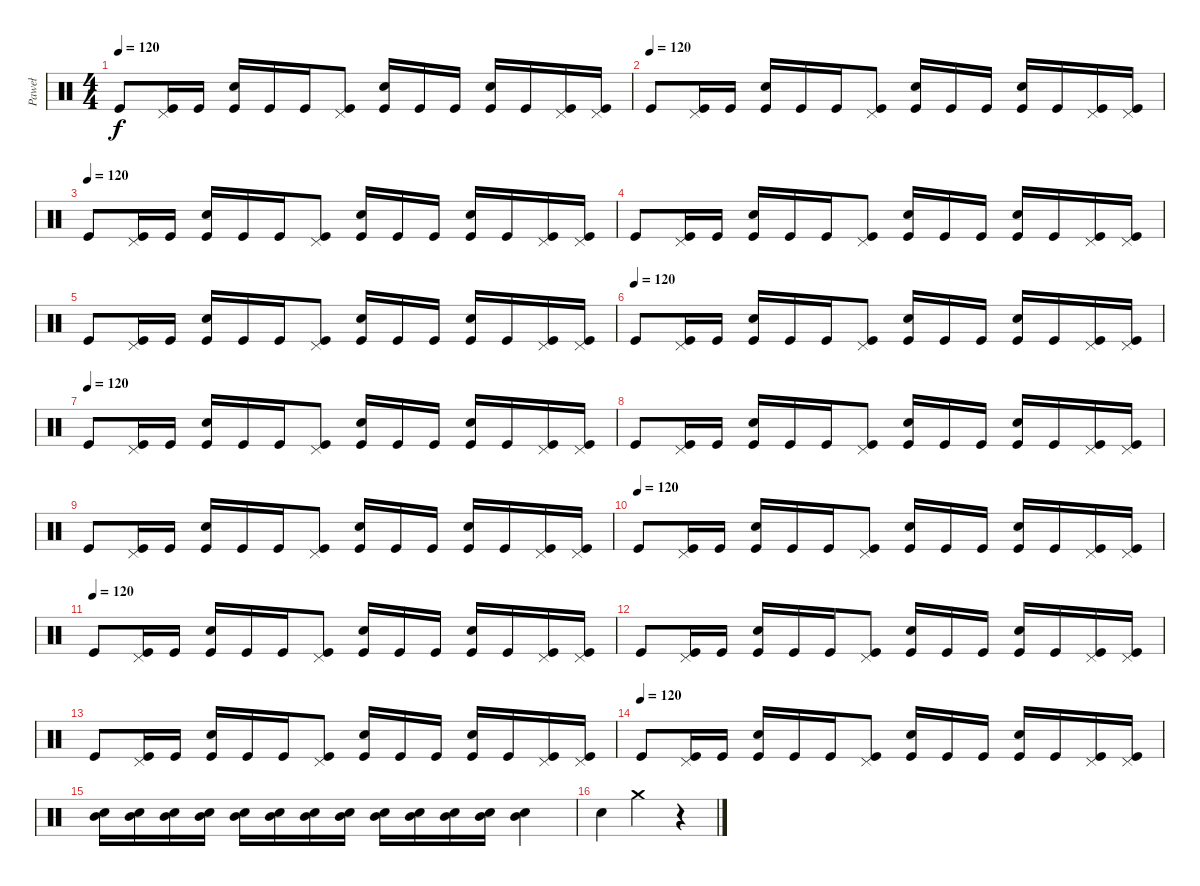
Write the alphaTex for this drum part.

\track ("Paweł" "Paweł") {instrument percussion}
\staff {score}
\articulation defaults
\ts (4 4)
\tempo 120
\clef neutral
\ks c "Kick (hit)".8{dy f}
("Pedal Hi-Hat (hit)" "Kick (hit)").16 "Kick (hit)".16 ("Snare (hit) 2" "Kick (hit)").16 "Kick (hit)".16 "Kick (hit)".16 ("Pedal Hi-Hat (hit)" "Kick (hit)").8 ("Snare (hit) 2" "Kick (hit)").16 "Kick (hit)".16 "Kick (hit)".16 ("Snare (hit) 2" "Kick (hit)").16 "Kick (hit)".16 ("Pedal Hi-Hat (hit)" "Kick (hit)").16 ("Pedal Hi-Hat (hit)" "Kick (hit)").16 |
\tempo (120)
"Kick (hit)".8 ("Pedal Hi-Hat (hit)" "Kick (hit)").16 "Kick (hit)".16 ("Snare (hit) 2" "Kick (hit)").16 "Kick (hit)".16 "Kick (hit)".16 ("Pedal Hi-Hat (hit)" "Kick (hit)").8 ("Snare (hit) 2" "Kick (hit)").16 "Kick (hit)".16 "Kick (hit)".16 ("Snare (hit) 2" "Kick (hit)").16 "Kick (hit)".16 ("Pedal Hi-Hat (hit)" "Kick (hit)").16 ("Pedal Hi-Hat (hit)" "Kick (hit)").16 |
\tempo (120)
"Kick (hit)".8 ("Pedal Hi-Hat (hit)" "Kick (hit)").16 "Kick (hit)".16 ("Snare (hit) 2" "Kick (hit)").16 "Kick (hit)".16 "Kick (hit)".16 ("Pedal Hi-Hat (hit)" "Kick (hit)").8 ("Snare (hit) 2" "Kick (hit)").16 "Kick (hit)".16 "Kick (hit)".16 ("Snare (hit) 2" "Kick (hit)").16 "Kick (hit)".16 ("Pedal Hi-Hat (hit)" "Kick (hit)").16 ("Pedal Hi-Hat (hit)" "Kick (hit)").16 |
"Kick (hit)".8 ("Pedal Hi-Hat (hit)" "Kick (hit)").16 "Kick (hit)".16 ("Snare (hit) 2" "Kick (hit)").16 "Kick (hit)".16 "Kick (hit)".16 ("Pedal Hi-Hat (hit)" "Kick (hit)").8 ("Snare (hit) 2" "Kick (hit)").16 "Kick (hit)".16 "Kick (hit)".16 ("Snare (hit) 2" "Kick (hit)").16 "Kick (hit)".16 ("Pedal Hi-Hat (hit)" "Kick (hit)").16 ("Pedal Hi-Hat (hit)" "Kick (hit)").16 |
"Kick (hit)".8 ("Pedal Hi-Hat (hit)" "Kick (hit)").16 "Kick (hit)".16 ("Snare (hit) 2" "Kick (hit)").16 "Kick (hit)".16 "Kick (hit)".16 ("Pedal Hi-Hat (hit)" "Kick (hit)").8 ("Snare (hit) 2" "Kick (hit)").16 "Kick (hit)".16 "Kick (hit)".16 ("Snare (hit) 2" "Kick (hit)").16 "Kick (hit)".16 ("Pedal Hi-Hat (hit)" "Kick (hit)").16 ("Pedal Hi-Hat (hit)" "Kick (hit)").16 |
\tempo (120)
"Kick (hit)".8 ("Pedal Hi-Hat (hit)" "Kick (hit)").16 "Kick (hit)".16 ("Snare (hit) 2" "Kick (hit)").16 "Kick (hit)".16 "Kick (hit)".16 ("Pedal Hi-Hat (hit)" "Kick (hit)").8 ("Snare (hit) 2" "Kick (hit)").16 "Kick (hit)".16 "Kick (hit)".16 ("Snare (hit) 2" "Kick (hit)").16 "Kick (hit)".16 ("Pedal Hi-Hat (hit)" "Kick (hit)").16 ("Pedal Hi-Hat (hit)" "Kick (hit)").16 |
\tempo (120)
"Kick (hit)".8 ("Pedal Hi-Hat (hit)" "Kick (hit)").16 "Kick (hit)".16 ("Snare (hit) 2" "Kick (hit)").16 "Kick (hit)".16 "Kick (hit)".16 ("Pedal Hi-Hat (hit)" "Kick (hit)").8 ("Snare (hit) 2" "Kick (hit)").16 "Kick (hit)".16 "Kick (hit)".16 ("Snare (hit) 2" "Kick (hit)").16 "Kick (hit)".16 ("Pedal Hi-Hat (hit)" "Kick (hit)").16 ("Pedal Hi-Hat (hit)" "Kick (hit)").16 |
"Kick (hit)".8 ("Pedal Hi-Hat (hit)" "Kick (hit)").16 "Kick (hit)".16 ("Snare (hit) 2" "Kick (hit)").16 "Kick (hit)".16 "Kick (hit)".16 ("Pedal Hi-Hat (hit)" "Kick (hit)").8 ("Snare (hit) 2" "Kick (hit)").16 "Kick (hit)".16 "Kick (hit)".16 ("Snare (hit) 2" "Kick (hit)").16 "Kick (hit)".16 ("Pedal Hi-Hat (hit)" "Kick (hit)").16 ("Pedal Hi-Hat (hit)" "Kick (hit)").16 |
"Kick (hit)".8 ("Pedal Hi-Hat (hit)" "Kick (hit)").16 "Kick (hit)".16 ("Snare (hit) 2" "Kick (hit)").16 "Kick (hit)".16 "Kick (hit)".16 ("Pedal Hi-Hat (hit)" "Kick (hit)").8 ("Snare (hit) 2" "Kick (hit)").16 "Kick (hit)".16 "Kick (hit)".16 ("Snare (hit) 2" "Kick (hit)").16 "Kick (hit)".16 ("Pedal Hi-Hat (hit)" "Kick (hit)").16 ("Pedal Hi-Hat (hit)" "Kick (hit)").16 |
\tempo (120)
"Kick (hit)".8 ("Pedal Hi-Hat (hit)" "Kick (hit)").16 "Kick (hit)".16 ("Snare (hit) 2" "Kick (hit)").16 "Kick (hit)".16 "Kick (hit)".16 ("Pedal Hi-Hat (hit)" "Kick (hit)").8 ("Snare (hit) 2" "Kick (hit)").16 "Kick (hit)".16 "Kick (hit)".16 ("Snare (hit) 2" "Kick (hit)").16 "Kick (hit)".16 ("Pedal Hi-Hat (hit)" "Kick (hit)").16 ("Pedal Hi-Hat (hit)" "Kick (hit)").16 |
\tempo (120)
"Kick (hit)".8 ("Pedal Hi-Hat (hit)" "Kick (hit)").16 "Kick (hit)".16 ("Snare (hit) 2" "Kick (hit)").16 "Kick (hit)".16 "Kick (hit)".16 ("Pedal Hi-Hat (hit)" "Kick (hit)").8 ("Snare (hit) 2" "Kick (hit)").16 "Kick (hit)".16 "Kick (hit)".16 ("Snare (hit) 2" "Kick (hit)").16 "Kick (hit)".16 ("Pedal Hi-Hat (hit)" "Kick (hit)").16 ("Pedal Hi-Hat (hit)" "Kick (hit)").16 |
"Kick (hit)".8 ("Pedal Hi-Hat (hit)" "Kick (hit)").16 "Kick (hit)".16 ("Snare (hit) 2" "Kick (hit)").16 "Kick (hit)".16 "Kick (hit)".16 ("Pedal Hi-Hat (hit)" "Kick (hit)").8 ("Snare (hit) 2" "Kick (hit)").16 "Kick (hit)".16 "Kick (hit)".16 ("Snare (hit) 2" "Kick (hit)").16 "Kick (hit)".16 ("Pedal Hi-Hat (hit)" "Kick (hit)").16 ("Pedal Hi-Hat (hit)" "Kick (hit)").16 |
"Kick (hit)".8 ("Pedal Hi-Hat (hit)" "Kick (hit)").16 "Kick (hit)".16 ("Snare (hit) 2" "Kick (hit)").16 "Kick (hit)".16 "Kick (hit)".16 ("Pedal Hi-Hat (hit)" "Kick (hit)").8 ("Snare (hit) 2" "Kick (hit)").16 "Kick (hit)".16 "Kick (hit)".16 ("Snare (hit) 2" "Kick (hit)").16 "Kick (hit)".16 ("Pedal Hi-Hat (hit)" "Kick (hit)").16 ("Pedal Hi-Hat (hit)" "Kick (hit)").16 |
\tempo (120)
"Kick (hit)".8 ("Pedal Hi-Hat (hit)" "Kick (hit)").16 "Kick (hit)".16 ("Snare (hit) 2" "Kick (hit)").16 "Kick (hit)".16 "Kick (hit)".16 ("Pedal Hi-Hat (hit)" "Kick (hit)").8 ("Snare (hit) 2" "Kick (hit)").16 "Kick (hit)".16 "Kick (hit)".16 ("Snare (hit) 2" "Kick (hit)").16 "Kick (hit)".16 ("Pedal Hi-Hat (hit)" "Kick (hit)").16 ("Pedal Hi-Hat (hit)" "Kick (hit)").16 |
("Snare (hit) 2" "Mid Tom (hit)").16{volume 5} ("Snare (hit) 2" "Mid Tom (hit)").16{volume 6} ("Snare (hit) 2" "Mid Tom (hit)").16{volume 7} ("Snare (hit) 2" "Mid Tom (hit)").16{volume 8} ("Snare (hit) 2" "Mid Tom (hit)").16{volume 8} ("Snare (hit) 2" "Mid Tom (hit)").16{volume 9} ("Snare (hit) 2" "Mid Tom (hit)").16{volume 10} ("Snare (hit) 2" "Mid Tom (hit)").16{volume 16} ("Snare (hit) 2" "Mid Tom (hit)").16 ("Snare (hit) 2" "Mid Tom (hit)").16 ("Snare (hit) 2" "Mid Tom (hit)").16 ("Snare (hit) 2" "Mid Tom (hit)").16 ("Snare (hit) 2" "Mid Tom (hit)").4 |
"Snare (hit) 2".4 "Crash medium (hit)".2 r.4
